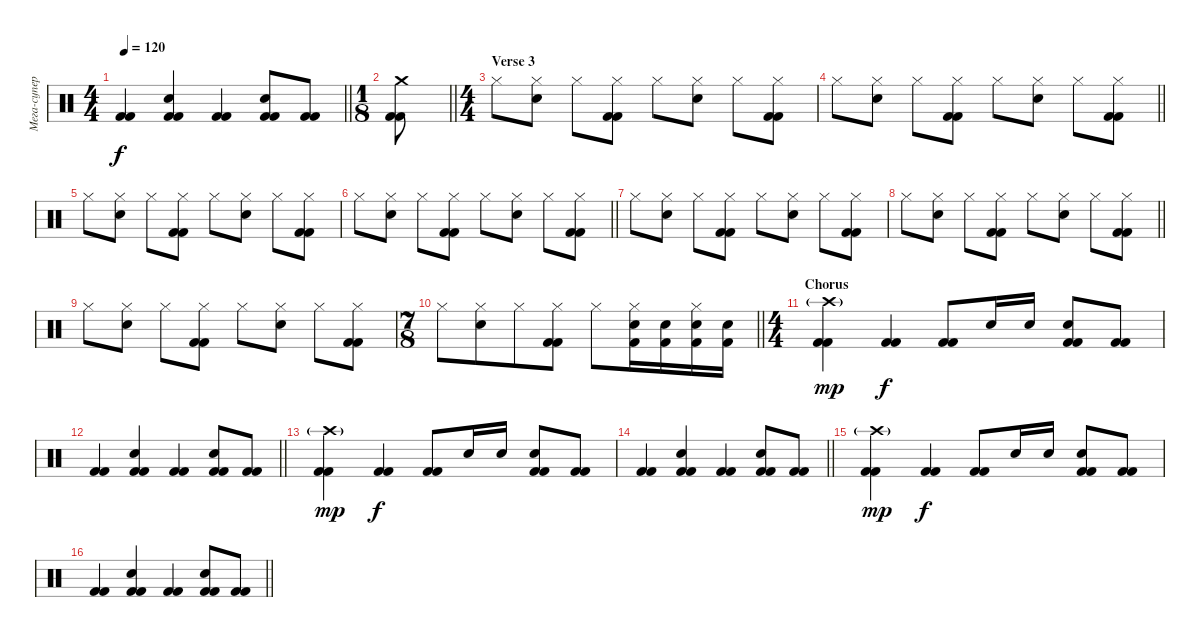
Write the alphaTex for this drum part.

\track ("Мега-супер-охеренный драммер" "Мега-супер") {instrument percussion}
\staff {score}
\articulation defaults
\ts (4 4)
\tempo 120
\clef neutral
\barLineRight lightlight
\ks c
("Kick (hit) 2" "Kick (hit) 2").4{dy f} ("Electric Snare (hit)" "Kick (hit) 2" "Kick (hit) 2").4 ("Kick (hit) 2" "Kick (hit) 2").4 ("Electric Snare (hit)" "Kick (hit) 2" "Kick (hit) 2").8 ("Kick (hit) 2" "Kick (hit) 2").8 |
\ts (1 8)
\barLineRight lightlight
("Crash medium (hit)" "Kick (hit) 2" "Kick (hit) 2").8 |
\ts (4 4)
\section ("" "Verse 3")
"Hi-Hat (closed)".8 ("Hi-Hat (closed)" "Electric Snare (hit)").8 "Hi-Hat (closed)".8 ("Hi-Hat (closed)" "Kick (hit) 2" "Kick (hit) 2").8 "Hi-Hat (closed)".8 ("Hi-Hat (closed)" "Electric Snare (hit)").8 "Hi-Hat (closed)".8 ("Hi-Hat (closed)" "Kick (hit) 2" "Kick (hit) 2").8 |
\barLineRight lightlight "Hi-Hat (closed)".8
("Hi-Hat (closed)" "Electric Snare (hit)").8 "Hi-Hat (closed)".8 ("Hi-Hat (closed)" "Kick (hit) 2" "Kick (hit) 2").8 "Hi-Hat (closed)".8 ("Hi-Hat (closed)" "Electric Snare (hit)").8 "Hi-Hat (closed)".8 ("Hi-Hat (closed)" "Kick (hit) 2" "Kick (hit) 2").8 |
"Hi-Hat (closed)".8 ("Hi-Hat (closed)" "Electric Snare (hit)").8 "Hi-Hat (closed)".8 ("Hi-Hat (closed)" "Kick (hit) 2" "Kick (hit) 2").8 "Hi-Hat (closed)".8 ("Hi-Hat (closed)" "Electric Snare (hit)").8 "Hi-Hat (closed)".8 ("Hi-Hat (closed)" "Kick (hit) 2" "Kick (hit) 2").8 |
\barLineRight lightlight "Hi-Hat (closed)".8
("Hi-Hat (closed)" "Electric Snare (hit)").8 "Hi-Hat (closed)".8 ("Hi-Hat (closed)" "Kick (hit) 2" "Kick (hit) 2").8 "Hi-Hat (closed)".8 ("Hi-Hat (closed)" "Electric Snare (hit)").8 "Hi-Hat (closed)".8 ("Hi-Hat (closed)" "Kick (hit) 2" "Kick (hit) 2").8 |
"Hi-Hat (closed)".8 ("Hi-Hat (closed)" "Electric Snare (hit)").8 "Hi-Hat (closed)".8 ("Hi-Hat (closed)" "Kick (hit) 2" "Kick (hit) 2").8 "Hi-Hat (closed)".8 ("Hi-Hat (closed)" "Electric Snare (hit)").8 "Hi-Hat (closed)".8 ("Hi-Hat (closed)" "Kick (hit) 2" "Kick (hit) 2").8 |
\barLineRight lightlight "Hi-Hat (closed)".8
("Hi-Hat (closed)" "Electric Snare (hit)").8 "Hi-Hat (closed)".8 ("Hi-Hat (closed)" "Kick (hit) 2" "Kick (hit) 2").8 "Hi-Hat (closed)".8 ("Hi-Hat (closed)" "Electric Snare (hit)").8 "Hi-Hat (closed)".8 ("Hi-Hat (closed)" "Kick (hit) 2" "Kick (hit) 2").8 |
"Hi-Hat (closed)".8 ("Hi-Hat (closed)" "Electric Snare (hit)").8 "Hi-Hat (closed)".8 ("Hi-Hat (closed)" "Kick (hit) 2" "Kick (hit) 2").8 "Hi-Hat (closed)".8 ("Hi-Hat (closed)" "Electric Snare (hit)").8 "Hi-Hat (closed)".8 ("Hi-Hat (closed)" "Kick (hit) 2" "Kick (hit) 2").8 |
\ts (7 8)
\barLineRight lightlight "Hi-Hat (closed)".8
("Hi-Hat (closed)" "Electric Snare (hit)").8 "Hi-Hat (closed)".8 ("Hi-Hat (closed)" "Kick (hit) 2" "Kick (hit) 2").8 "Hi-Hat (closed)".8 ("Hi-Hat (closed)" "Electric Snare (hit)" "Kick (hit) 2").16 ("Electric Snare (hit)" "Kick (hit) 2").16 ("Hi-Hat (closed)" "Electric Snare (hit)" "Kick (hit) 2").16 ("Electric Snare (hit)" "Kick (hit) 2").16 |
\ts (4 4)
\section ("" "Chorus")
("Crash high (hit)"{g} "Kick (hit) 2" "Kick (hit) 2").4{dy mp} ("Kick (hit) 2" "Kick (hit) 2").4{dy f} ("Kick (hit) 2" "Kick (hit) 2").8 "Electric Snare (hit)".16 "Electric Snare (hit)".16 ("Electric Snare (hit)" "Kick (hit) 2" "Kick (hit) 2").8 ("Kick (hit) 2" "Kick (hit) 2").8 |
\barLineRight lightlight
("Kick (hit) 2" "Kick (hit) 2").4 ("Electric Snare (hit)" "Kick (hit) 2" "Kick (hit) 2").4 ("Kick (hit) 2" "Kick (hit) 2").4 ("Electric Snare (hit)" "Kick (hit) 2" "Kick (hit) 2").8 ("Kick (hit) 2" "Kick (hit) 2").8 |
("Crash high (hit)"{g} "Kick (hit) 2" "Kick (hit) 2").4{dy mp} ("Kick (hit) 2" "Kick (hit) 2").4{dy f} ("Kick (hit) 2" "Kick (hit) 2").8 "Electric Snare (hit)".16 "Electric Snare (hit)".16 ("Electric Snare (hit)" "Kick (hit) 2" "Kick (hit) 2").8 ("Kick (hit) 2" "Kick (hit) 2").8 |
\barLineRight lightlight
("Kick (hit) 2" "Kick (hit) 2").4 ("Electric Snare (hit)" "Kick (hit) 2" "Kick (hit) 2").4 ("Kick (hit) 2" "Kick (hit) 2").4 ("Electric Snare (hit)" "Kick (hit) 2" "Kick (hit) 2").8 ("Kick (hit) 2" "Kick (hit) 2").8 |
("Crash high (hit)"{g} "Kick (hit) 2" "Kick (hit) 2").4{dy mp} ("Kick (hit) 2" "Kick (hit) 2").4{dy f} ("Kick (hit) 2" "Kick (hit) 2").8 "Electric Snare (hit)".16 "Electric Snare (hit)".16 ("Electric Snare (hit)" "Kick (hit) 2" "Kick (hit) 2").8 ("Kick (hit) 2" "Kick (hit) 2").8 |
\barLineRight lightlight
("Kick (hit) 2" "Kick (hit) 2").4 ("Electric Snare (hit)" "Kick (hit) 2" "Kick (hit) 2").4 ("Kick (hit) 2" "Kick (hit) 2").4 ("Electric Snare (hit)" "Kick (hit) 2" "Kick (hit) 2").8 ("Kick (hit) 2" "Kick (hit) 2").8
